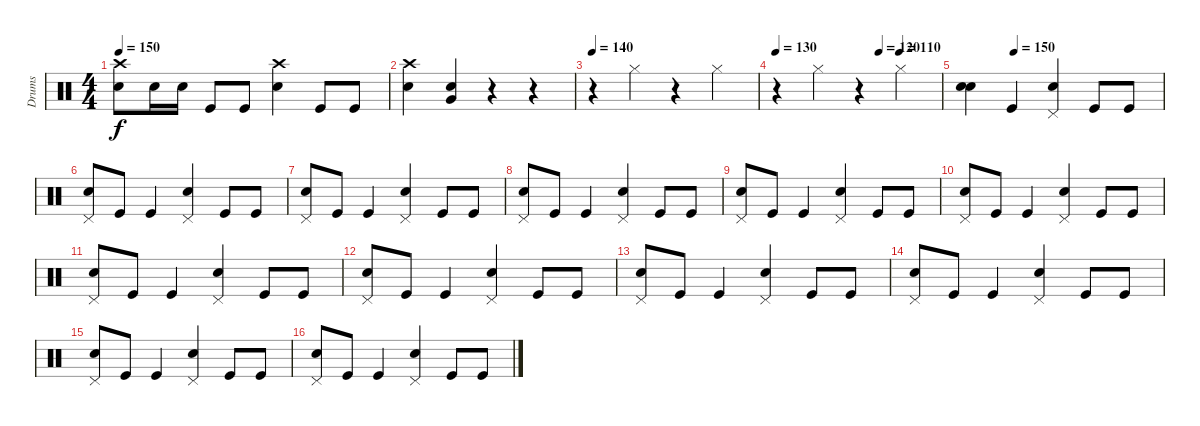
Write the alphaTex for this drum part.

\track ("Drums" "Drums") {instrument percussion}
\staff {score}
\articulation defaults
\ts (4 4)
\tempo 150
\clef neutral
\ks c
("Snare (hit) 2" "Crash high (hit)").8{dy f} "Snare (hit) 2".16 "Snare (hit) 2".16 "Kick (hit)".8 "Kick (hit)".8 ("Snare (hit) 2" "Crash high (hit)").4 "Kick (hit)".8 "Kick (hit)".8 |
("Snare (hit) 2" "Crash high (hit)").4 ("Snare (hit) 2" "Very Low Tom (hit)").4 r.4 r.4 |
\tempo 140
r.4 "Hi-Hat (closed)".4 r.4 "Hi-Hat (closed)".4 |
\tempo 130
\tempo (120 0.625)
\tempo (110 0.75)
r.4 "Hi-Hat (closed)".4 r.4 "Hi-Hat (closed)".4 |
\tempo (150 0.25)
("Snare (hit) 2" "Electric Snare (hit)").4 "Kick (hit)".4 ("Snare (hit) 2" "Pedal Hi-Hat (hit)").4 "Kick (hit)".8 "Kick (hit)".8 |
("Snare (hit) 2" "Pedal Hi-Hat (hit)").8 "Kick (hit)".8 "Kick (hit)".4 ("Snare (hit) 2" "Pedal Hi-Hat (hit)").4 "Kick (hit)".8 "Kick (hit)".8 |
("Snare (hit) 2" "Pedal Hi-Hat (hit)").8 "Kick (hit)".8 "Kick (hit)".4 ("Snare (hit) 2" "Pedal Hi-Hat (hit)").4 "Kick (hit)".8 "Kick (hit)".8 |
("Snare (hit) 2" "Pedal Hi-Hat (hit)").8 "Kick (hit)".8 "Kick (hit)".4 ("Snare (hit) 2" "Pedal Hi-Hat (hit)").4 "Kick (hit)".8 "Kick (hit)".8 |
("Snare (hit) 2" "Pedal Hi-Hat (hit)").8 "Kick (hit)".8 "Kick (hit)".4 ("Snare (hit) 2" "Pedal Hi-Hat (hit)").4 "Kick (hit)".8 "Kick (hit)".8 |
("Snare (hit) 2" "Pedal Hi-Hat (hit)").8 "Kick (hit)".8 "Kick (hit)".4 ("Snare (hit) 2" "Pedal Hi-Hat (hit)").4 "Kick (hit)".8 "Kick (hit)".8 |
("Snare (hit) 2" "Pedal Hi-Hat (hit)").8 "Kick (hit)".8 "Kick (hit)".4 ("Snare (hit) 2" "Pedal Hi-Hat (hit)").4 "Kick (hit)".8 "Kick (hit)".8 |
("Snare (hit) 2" "Pedal Hi-Hat (hit)").8 "Kick (hit)".8 "Kick (hit)".4 ("Snare (hit) 2" "Pedal Hi-Hat (hit)").4 "Kick (hit)".8 "Kick (hit)".8 |
("Snare (hit) 2" "Pedal Hi-Hat (hit)").8 "Kick (hit)".8 "Kick (hit)".4 ("Snare (hit) 2" "Pedal Hi-Hat (hit)").4 "Kick (hit)".8 "Kick (hit)".8 |
("Snare (hit) 2" "Pedal Hi-Hat (hit)").8 "Kick (hit)".8 "Kick (hit)".4 ("Snare (hit) 2" "Pedal Hi-Hat (hit)").4 "Kick (hit)".8 "Kick (hit)".8 |
("Snare (hit) 2" "Pedal Hi-Hat (hit)").8 "Kick (hit)".8 "Kick (hit)".4 ("Snare (hit) 2" "Pedal Hi-Hat (hit)").4 "Kick (hit)".8 "Kick (hit)".8 |
("Snare (hit) 2" "Pedal Hi-Hat (hit)").8 "Kick (hit)".8 "Kick (hit)".4 ("Snare (hit) 2" "Pedal Hi-Hat (hit)").4 "Kick (hit)".8 "Kick (hit)".8
